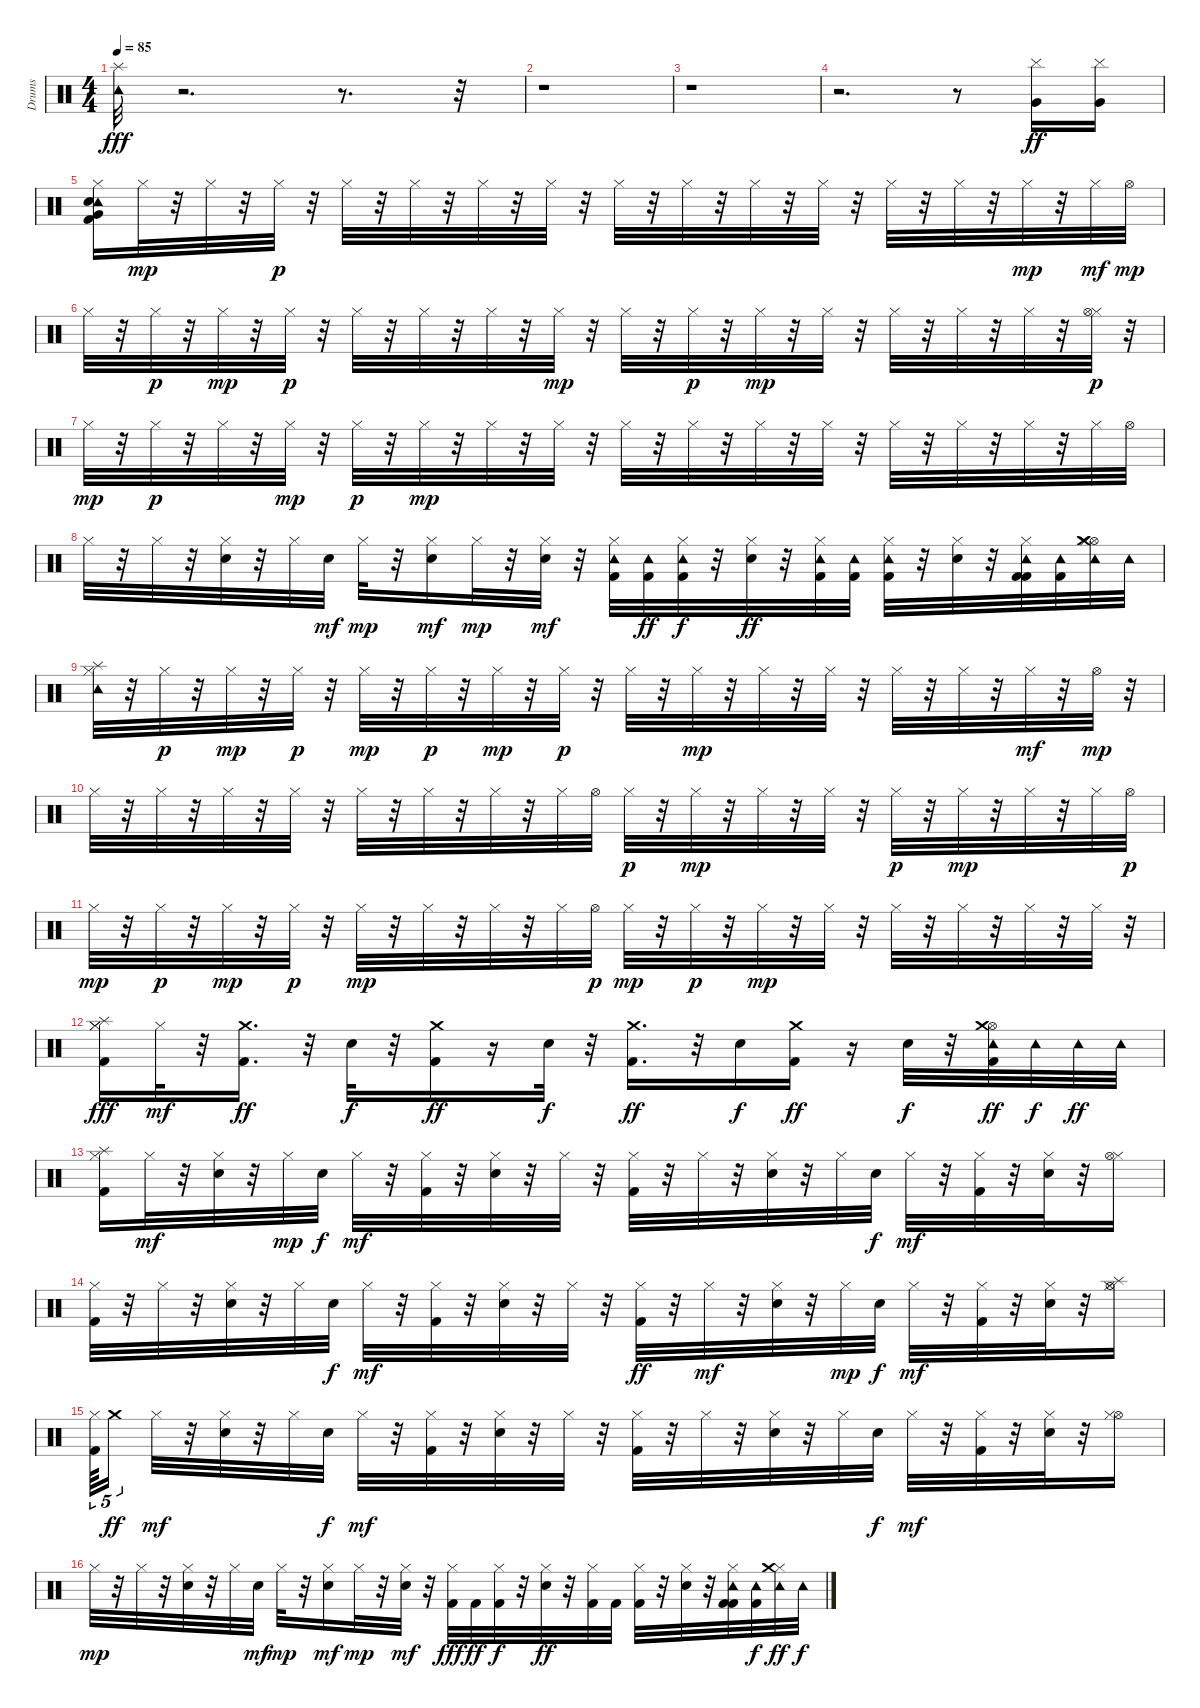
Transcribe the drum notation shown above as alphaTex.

\track ("Drums" "Drums") {instrument percussion}
\staff {score}
\articulation defaults
\ts (4 4)
\tempo 85
\clef neutral
\ks c
("Splash (hit)" "Tambourine (hit)").32{dy fff} r.2{d} r.8{d} r.32 |
r.1 |
r.1 |
r.2{d} r.8 ("Cymbal (hit)" "Very Low Tom (hit)").16{dy ff} ("Cymbal (hit)" "Very Low Tom (hit)").16 |
("Hi-Hat (closed)" "Tambourine (hit)" "Kick (hit) 2" "Very Low Tom (hit)" "Snare (hit) 2").16 "Hi-Hat (closed)".32{dy mp} r.32 "Hi-Hat (closed)".32 r.32 "Hi-Hat (closed)".32{dy p} r.32 "Hi-Hat (closed)".32 r.32 "Hi-Hat (closed)".32 r.32 "Hi-Hat (closed)".32 r.32 "Hi-Hat (closed)".32 r.32 "Hi-Hat (closed)".32 r.32 "Hi-Hat (closed)".32 r.32 "Hi-Hat (closed)".32 r.32 "Hi-Hat (closed)".32 r.32 "Hi-Hat (closed)".32 r.32 "Hi-Hat (closed)".32 r.32 "Hi-Hat (closed)".32{dy mp} r.32 "Hi-Hat (closed)".32{dy mf} "Hi-Hat (open)".32{dy mp} |
"Hi-Hat (closed)".32 r.32 "Hi-Hat (closed)".32{dy p} r.32 "Hi-Hat (closed)".32{dy mp} r.32 "Hi-Hat (closed)".32{dy p} r.32 "Hi-Hat (closed)".32 r.32 "Hi-Hat (closed)".32 r.32 "Hi-Hat (closed)".32 r.32 "Hi-Hat (closed)".32{dy mp} r.32 "Hi-Hat (closed)".32 r.32 "Hi-Hat (closed)".32{dy p} r.32 "Hi-Hat (closed)".32{dy mp} r.32 "Hi-Hat (closed)".32 r.32 "Hi-Hat (closed)".32 r.32 "Hi-Hat (closed)".32 r.32 "Hi-Hat (closed)".32 r.32 ("Hi-Hat (closed)" "Hi-Hat (open)").32{dy p} r.32 |
"Hi-Hat (closed)".32{dy mp} r.32 "Hi-Hat (closed)".32{dy p} r.32 "Hi-Hat (closed)".32 r.32 "Hi-Hat (closed)".32{dy mp} r.32 "Hi-Hat (closed)".32{dy p} r.32 "Hi-Hat (closed)".32{dy mp} r.32 "Hi-Hat (closed)".32 r.32 "Hi-Hat (closed)".32 r.32 "Hi-Hat (closed)".32 r.32 "Hi-Hat (closed)".32 r.32 "Hi-Hat (closed)".32 r.32 "Hi-Hat (closed)".32 r.32 "Hi-Hat (closed)".32 r.32 "Hi-Hat (closed)".32 r.32 "Hi-Hat (closed)".32 r.32 "Hi-Hat (closed)".32 "Hi-Hat (open)".32 |
"Hi-Hat (closed)".32 r.32 "Hi-Hat (closed)".32 r.32 ("Hi-Hat (closed)" "Electric Snare (hit)").32 r.32 "Hi-Hat (closed)".32 "Electric Snare (hit)".32{dy mf} "Hi-Hat (closed)".32{dy mp} r.32 ("Electric Snare (hit)" "Hi-Hat (closed)").16{dy mf} "Hi-Hat (closed)".32{dy mp} r.32 ("Electric Snare (hit)" "Hi-Hat (closed)").32{dy mf} r.32 ("Hi-Hat (closed)" "Kick (hit) 2" "Tambourine (hit)").32 ("Kick (hit) 2" "Tambourine (hit)").32{dy ff} ("Hi-Hat (closed)" "Kick (hit) 2" "Tambourine (hit)").32{dy f} r.32 ("Hi-Hat (closed)" "Electric Snare (hit)").32{dy ff} r.32 ("Hi-Hat (closed)" "Kick (hit) 2" "Tambourine (hit)").32 ("Kick (hit) 2" "Tambourine (hit)").32 ("Hi-Hat (closed)" "Kick (hit) 2" "Tambourine (hit)").32 r.32 ("Hi-Hat (closed)" "Electric Snare (hit)").32 r.32 ("Hi-Hat (closed)" "Kick (hit) 2" "Kick (hit) 2" "Tambourine (hit)").32 ("Kick (hit) 2" "Tambourine (hit)").32 ("Hi-Hat (open)" "Hi-Hat (closed)" "Tambourine (hit)" "Crash medium (hit)").32 "Tambourine (hit)".32 |
("Hi-Hat (closed)" "Splash (hit)" "Tambourine (hit)").32 r.32 "Hi-Hat (closed)".32{dy p} r.32 "Hi-Hat (closed)".32{dy mp} r.32 "Hi-Hat (closed)".32{dy p} r.32 "Hi-Hat (closed)".32{dy mp} r.32 "Hi-Hat (closed)".32{dy p} r.32 "Hi-Hat (closed)".32{dy mp} r.32 "Hi-Hat (closed)".32{dy p} r.32 "Hi-Hat (closed)".32 r.32 "Hi-Hat (closed)".32{dy mp} r.32 "Hi-Hat (closed)".32 r.32 "Hi-Hat (closed)".32 r.32 "Hi-Hat (closed)".32 r.32 "Hi-Hat (closed)".32 r.32 "Hi-Hat (closed)".32{dy mf} r.32 "Hi-Hat (open)".32{dy mp} r.32 |
"Hi-Hat (closed)".32 r.32 "Hi-Hat (closed)".32 r.32 "Hi-Hat (closed)".32 r.32 "Hi-Hat (closed)".32 r.32 "Hi-Hat (closed)".32 r.32 "Hi-Hat (closed)".32 r.32 "Hi-Hat (closed)".32 r.32 "Hi-Hat (closed)".32 "Hi-Hat (open)".32 "Hi-Hat (closed)".32{dy p} r.32 "Hi-Hat (closed)".32{dy mp} r.32 "Hi-Hat (closed)".32 r.32 "Hi-Hat (closed)".32 r.32 "Hi-Hat (closed)".32{dy p} r.32 "Hi-Hat (closed)".32{dy mp} r.32 "Hi-Hat (closed)".32 r.32 "Hi-Hat (closed)".32 "Hi-Hat (open)".32{dy p} |
"Hi-Hat (closed)".32{dy mp} r.32 "Hi-Hat (closed)".32{dy p} r.32 "Hi-Hat (closed)".32{dy mp} r.32 "Hi-Hat (closed)".32{dy p} r.32 "Hi-Hat (closed)".32{dy mp} r.32 "Hi-Hat (closed)".32 r.32 "Hi-Hat (closed)".32 r.32 "Hi-Hat (closed)".32 "Hi-Hat (open)".32{dy p} "Hi-Hat (closed)".32{dy mp} r.32 "Hi-Hat (closed)".32{dy p} r.32 "Hi-Hat (closed)".32{dy mp} r.32 "Hi-Hat (closed)".32 r.32 "Hi-Hat (closed)".32 r.32 "Hi-Hat (closed)".32 r.32 "Hi-Hat (closed)".32 r.32 "Hi-Hat (closed)".32 r.32 |
("Hi-Hat (closed)" "Kick (hit) 2" "Splash (hit)" "Hi-Hat (closed)").16{dy fff} "Hi-Hat (closed)".32{dy mf} r.32 ("Kick (hit) 2" "Crash medium (hit)").16{d dy ff} r.32 "Electric Snare (hit)".32{dy f} r.32 ("Kick (hit) 2" "Crash medium (hit)").16{dy ff} r.16 "Electric Snare (hit)".32{dy f} r.32 ("Kick (hit) 2" "Crash medium (hit)").16{d dy ff} r.32 "Electric Snare (hit)".16{dy f} ("Crash medium (hit)" "Kick (hit) 2").16{dy ff} r.16 "Electric Snare (hit)".32{dy f} r.32 ("Hi-Hat (open)" "Crash medium (hit)" "Kick (hit) 2" "Tambourine (hit)").32{dy ff} "Tambourine (hit)".32{dy f} "Tambourine (hit)".32{dy ff} "Tambourine (hit)".32 |
("Splash (hit)" "Kick (hit) 2" "Hi-Hat (closed)").16 "Hi-Hat (closed)".32{dy mf} r.32 ("Hi-Hat (closed)" "Electric Snare (hit)").32 r.32 "Hi-Hat (closed)".32{dy mp} "Electric Snare (hit)".32{dy f} "Hi-Hat (closed)".32{dy mf} r.32 ("Kick (hit) 2" "Hi-Hat (closed)").32 r.32 ("Electric Snare (hit)" "Hi-Hat (closed)").32 r.32 "Hi-Hat (closed)".32 r.32 ("Kick (hit) 2" "Hi-Hat (closed)").32 r.32 "Hi-Hat (closed)".32 r.32 ("Electric Snare (hit)" "Hi-Hat (closed)").32 r.32 "Hi-Hat (closed)".32 "Electric Snare (hit)".32{dy f} "Hi-Hat (closed)".32{dy mf} r.32 ("Kick (hit) 2" "Hi-Hat (closed)").32 r.32 ("Electric Snare (hit)" "Hi-Hat (closed)").32 r.32 ("Hi-Hat (closed)" "Hi-Hat (open)").16 |
("Kick (hit) 2" "Hi-Hat (closed)").32 r.32 "Hi-Hat (closed)".32 r.32 ("Electric Snare (hit)" "Hi-Hat (closed)").32 r.32 "Hi-Hat (closed)".32 "Electric Snare (hit)".32{dy f} "Hi-Hat (closed)".32{dy mf} r.32 ("Kick (hit) 2" "Hi-Hat (closed)").32 r.32 ("Hi-Hat (closed)" "Electric Snare (hit)").32 r.32 "Hi-Hat (closed)".32 r.32 ("Hi-Hat (closed)" "Kick (hit) 2").32{dy ff} r.32 "Hi-Hat (closed)".32{dy mf} r.32 ("Electric Snare (hit)" "Hi-Hat (closed)").32 r.32 "Hi-Hat (closed)".32{dy mp} "Electric Snare (hit)".32{dy f} "Hi-Hat (closed)".32{dy mf} r.32 ("Kick (hit) 2" "Hi-Hat (closed)").32 r.32 ("Electric Snare (hit)" "Hi-Hat (closed)").32 r.32 ("Hi-Hat (open)" "Hi-Hat (closed)" "Splash (hit)").16 |
("Kick (hit) 2" "Hi-Hat (closed)").64{tu (5 4)} "Crash medium (hit)".16{tu (5 4) dy ff beam splitsecondary} "Hi-Hat (closed)".32{dy mf} r.32 ("Electric Snare (hit)" "Hi-Hat (closed)").32 r.32 "Hi-Hat (closed)".32 "Electric Snare (hit)".32{dy f} "Hi-Hat (closed)".32{dy mf} r.32 ("Kick (hit) 2" "Hi-Hat (closed)").32 r.32 ("Electric Snare (hit)" "Hi-Hat (closed)").32 r.32 "Hi-Hat (closed)".32 r.32 ("Kick (hit) 2" "Hi-Hat (closed)").32 r.32 "Hi-Hat (closed)".32 r.32 ("Electric Snare (hit)" "Hi-Hat (closed)").32 r.32 "Hi-Hat (closed)".32 "Electric Snare (hit)".32{dy f} "Hi-Hat (closed)".32{dy mf} r.32 ("Kick (hit) 2" "Hi-Hat (closed)").32 r.32 ("Electric Snare (hit)" "Hi-Hat (closed)").32 r.32 ("Hi-Hat (open)" "Hi-Hat (closed)").16 |
"Hi-Hat (closed)".32{dy mp} r.32 "Hi-Hat (closed)".32 r.32 ("Hi-Hat (closed)" "Electric Snare (hit)").32 r.32 "Hi-Hat (closed)".32 "Electric Snare (hit)".32{dy mf} "Hi-Hat (closed)".32{dy mp} r.32 ("Electric Snare (hit)" "Hi-Hat (closed)").16{dy mf} "Hi-Hat (closed)".32{dy mp} r.32 ("Electric Snare (hit)" "Hi-Hat (closed)").32{dy mf} r.32 ("Hi-Hat (closed)" "Kick (hit) 2").32{dy fff} "Kick (hit) 2".32{dy ff} ("Hi-Hat (closed)" "Kick (hit) 2").32{dy f} r.32 ("Hi-Hat (closed)" "Electric Snare (hit)").32{dy ff} r.32 ("Hi-Hat (closed)" "Kick (hit) 2").32 "Kick (hit) 2".32 ("Hi-Hat (closed)" "Kick (hit) 2").32 r.32 ("Hi-Hat (closed)" "Electric Snare (hit)").32 r.32 ("Hi-Hat (closed)" "Kick (hit) 2" "Kick (hit) 2" "Tambourine (hit)").32 ("Kick (hit) 2" "Tambourine (hit)").32{dy f} ("Hi-Hat (closed)" "Tambourine (hit)" "Crash medium (hit)").32{dy ff} "Tambourine (hit)".32{dy f}
